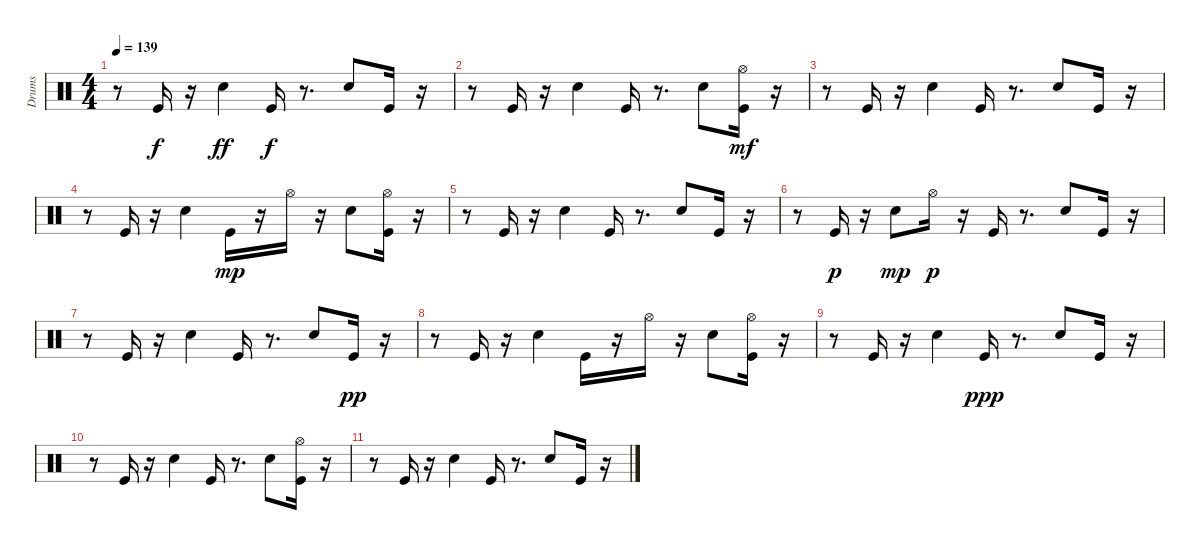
\track ("Drums" "Drums") {instrument percussion}
\staff {score}
\articulation defaults
\ts (4 4)
\tempo 139
\clef neutral
\ks c
r.8{dy f} "Kick (hit)".16 r.16 "Snare (hit) 2".4{dy ff} "Kick (hit)".16{dy f} r.8{d} "Snare (hit) 2".8 "Kick (hit)".16 r.16 |
r.8 "Kick (hit)".16 r.16 "Snare (hit) 2".4 "Kick (hit)".16 r.8{d} "Snare (hit) 2".8 ("Kick (hit)" "Hi-Hat (open)").16{dy mf} r.16 |
r.8 "Kick (hit)".16 r.16 "Snare (hit) 2".4 "Kick (hit)".16 r.8{d} "Snare (hit) 2".8 "Kick (hit)".16 r.16 |
r.8 "Kick (hit)".16 r.16 "Snare (hit) 2".4 "Kick (hit)".16{dy mp} r.16 "Hi-Hat (open)".16 r.16 "Snare (hit) 2".8 ("Kick (hit)" "Hi-Hat (open)").16 r.16 |
r.8 "Kick (hit)".16 r.16 "Snare (hit) 2".4 "Kick (hit)".16 r.8{d} "Snare (hit) 2".8 "Kick (hit)".16 r.16 |
r.8 "Kick (hit)".16{dy p} r.16 "Snare (hit) 2".8{dy mp} "Hi-Hat (open)".16{dy p} r.16 "Kick (hit)".16 r.8{d} "Snare (hit) 2".8 "Kick (hit)".16 r.16 |
r.8 "Kick (hit)".16 r.16 "Snare (hit) 2".4 "Kick (hit)".16 r.8{d} "Snare (hit) 2".8 "Kick (hit)".16{dy pp} r.16 |
r.8 "Kick (hit)".16 r.16 "Snare (hit) 2".4 "Kick (hit)".16 r.16 "Hi-Hat (open)".16 r.16 "Snare (hit) 2".8 ("Kick (hit)" "Hi-Hat (open)").16 r.16 |
r.8 "Kick (hit)".16 r.16 "Snare (hit) 2".4 "Kick (hit)".16{dy ppp} r.8{d} "Snare (hit) 2".8 "Kick (hit)".16 r.16 |
r.8 "Kick (hit)".16 r.16 "Snare (hit) 2".4 "Kick (hit)".16 r.8{d} "Snare (hit) 2".8 ("Kick (hit)" "Hi-Hat (open)").16 r.16 |
r.8 "Kick (hit)".16 r.16 "Snare (hit) 2".4 "Kick (hit)".16 r.8{d} "Snare (hit) 2".8 "Kick (hit)".16 r.16
